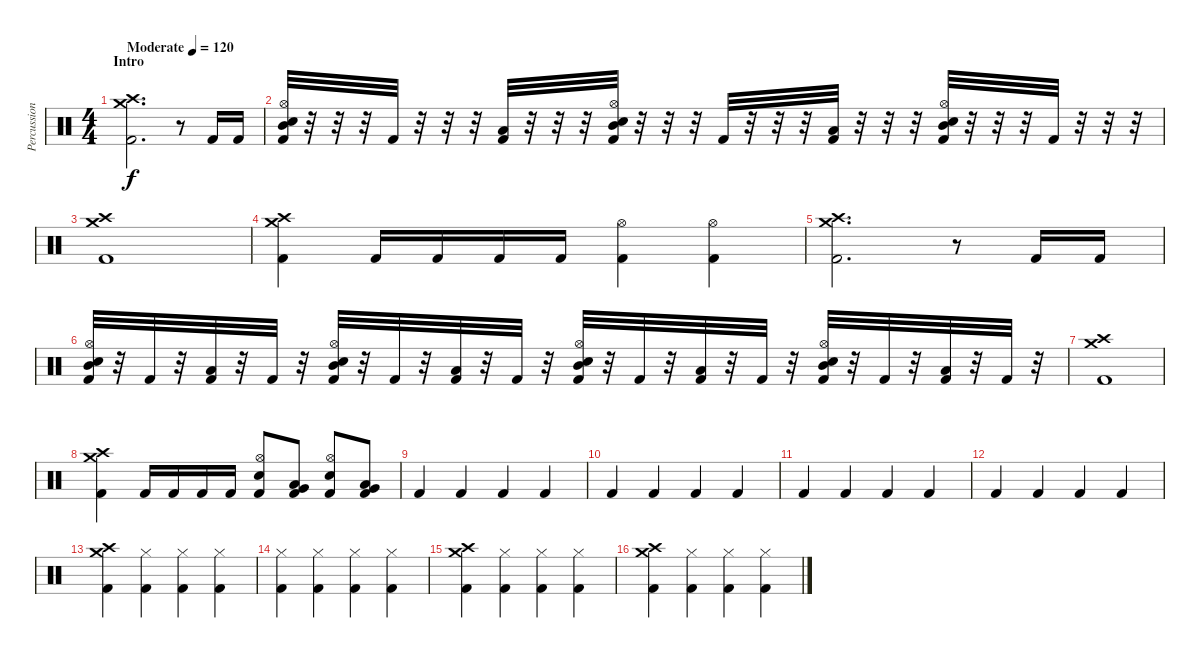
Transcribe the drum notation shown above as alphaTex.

\track ("Percussion" "Percussion") {instrument percussion}
\staff {score}
\articulation defaults
\ts (4 4)
\section ("" "Intro")
\tempo (120 "Moderate")
\clef neutral
\ks c
("Crash medium (hit)" "Crash high (hit)" "Kick (hit) 2").2{d dy f} r.8 "Kick (hit) 2".16 "Kick (hit) 2".16 |
("Hi-Hat (open)" "Mid Tom (hit)" "Electric Snare (hit)" "Kick (hit) 2").32 r.32 r.32 r.32 "Kick (hit) 2".32 r.32 r.32 r.32 ("Low Floor Tom (hit)" "Kick (hit) 2").32 r.32 r.32 r.32 ("Hi-Hat (open)" "Mid Tom (hit)" "Electric Snare (hit)" "Kick (hit) 2").32 r.32 r.32 r.32 "Kick (hit) 2".32 r.32 r.32 r.32 ("Low Floor Tom (hit)" "Kick (hit) 2").32 r.32 r.32 r.32 ("Hi-Hat (open)" "Mid Tom (hit)" "Electric Snare (hit)" "Kick (hit) 2").32 r.32 r.32 r.32 "Kick (hit) 2".32 r.32 r.32 r.32 |
("Crash medium (hit)" "Crash high (hit)" "Kick (hit) 2").1 |
("Crash medium (hit)" "Crash high (hit)" "Kick (hit) 2").4 "Kick (hit) 2".16 "Kick (hit) 2".16 "Kick (hit) 2".16 "Kick (hit) 2".16 ("Hi-Hat (open)" "Kick (hit) 2").4 ("Hi-Hat (open)" "Kick (hit) 2").4 |
("Crash medium (hit)" "Crash high (hit)" "Kick (hit) 2").2{d} r.8 "Kick (hit) 2".16 "Kick (hit) 2".16 |
("Hi-Hat (open)" "Mid Tom (hit)" "Electric Snare (hit)" "Kick (hit) 2").32 r.32 "Kick (hit) 2".32 r.32 ("Low Floor Tom (hit)" "Kick (hit) 2").32 r.32 "Kick (hit) 2".32 r.32 ("Hi-Hat (open)" "Mid Tom (hit)" "Electric Snare (hit)" "Kick (hit) 2").32 r.32 "Kick (hit) 2".32 r.32 ("Low Floor Tom (hit)" "Kick (hit) 2").32 r.32 "Kick (hit) 2".32 r.32 ("Hi-Hat (open)" "Mid Tom (hit)" "Electric Snare (hit)" "Kick (hit) 2").32 r.32 "Kick (hit) 2".32 r.32 ("Low Floor Tom (hit)" "Kick (hit) 2").32 r.32 "Kick (hit) 2".32 r.32 ("Hi-Hat (open)" "Mid Tom (hit)" "Electric Snare (hit)" "Kick (hit) 2").32 r.32 "Kick (hit) 2".32 r.32 ("Low Floor Tom (hit)" "Kick (hit) 2").32 r.32 "Kick (hit) 2".32 r.32 |
("Crash medium (hit)" "Crash high (hit)" "Kick (hit) 2").1 |
("Crash medium (hit)" "Crash high (hit)" "Kick (hit) 2").4 "Kick (hit) 2".16 "Kick (hit) 2".16 "Kick (hit) 2".16 "Kick (hit) 2".16 ("Hi-Hat (open)" "Electric Snare (hit)" "Kick (hit) 2").8 ("Very Low Tom (hit)" "Low Floor Tom (hit)" "Kick (hit) 2").8 ("Hi-Hat (open)" "Electric Snare (hit)" "Kick (hit) 2").8 ("Very Low Tom (hit)" "Low Floor Tom (hit)" "Kick (hit) 2").8 |
"Kick (hit) 2".4 "Kick (hit) 2".4 "Kick (hit) 2".4 "Kick (hit) 2".4 |
"Kick (hit) 2".4 "Kick (hit) 2".4 "Kick (hit) 2".4 "Kick (hit) 2".4 |
"Kick (hit) 2".4 "Kick (hit) 2".4 "Kick (hit) 2".4 "Kick (hit) 2".4 |
"Kick (hit) 2".4 "Kick (hit) 2".4 "Kick (hit) 2".4 "Kick (hit) 2".4 |
("Crash medium (hit)" "Crash high (hit)" "Kick (hit) 2").4 ("Hi-Hat (closed)" "Kick (hit) 2").4 ("Hi-Hat (closed)" "Kick (hit) 2").4 ("Hi-Hat (closed)" "Kick (hit) 2").4 |
("Hi-Hat (closed)" "Kick (hit) 2").4 ("Hi-Hat (closed)" "Kick (hit) 2").4 ("Hi-Hat (closed)" "Kick (hit) 2").4 ("Hi-Hat (closed)" "Kick (hit) 2").4 |
("Crash medium (hit)" "Crash high (hit)" "Kick (hit) 2").4 ("Hi-Hat (closed)" "Kick (hit) 2").4 ("Hi-Hat (closed)" "Kick (hit) 2").4 ("Hi-Hat (closed)" "Kick (hit) 2").4 |
("Crash medium (hit)" "Crash high (hit)" "Kick (hit) 2").4 ("Hi-Hat (closed)" "Kick (hit) 2").4 ("Hi-Hat (closed)" "Kick (hit) 2").4 ("Hi-Hat (closed)" "Kick (hit) 2").4
